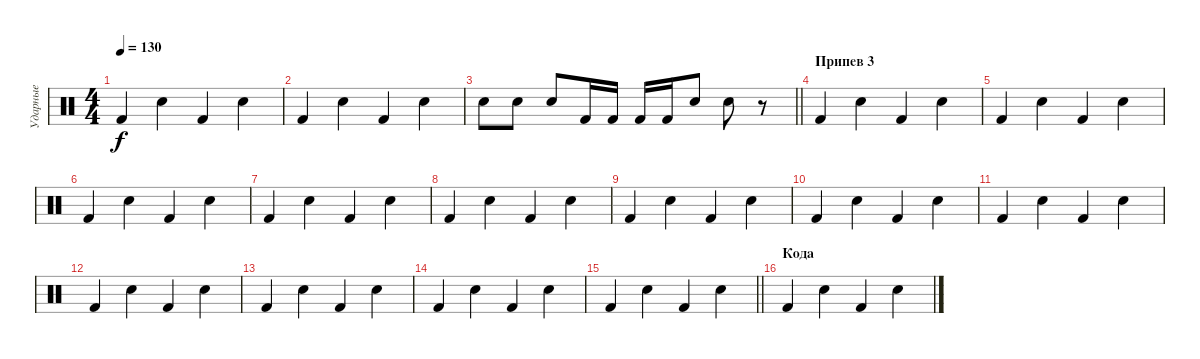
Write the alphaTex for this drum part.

\track ("Ударные" "Ударные") {instrument percussion}
\staff {score}
\articulation defaults
\ts (4 4)
\tempo 130
\clef neutral
\ks c "Kick (hit) 2".4{dy f} "Electric Snare (hit)".4 "Kick (hit) 2".4 "Electric Snare (hit)".4
|
"Kick (hit) 2".4 "Electric Snare (hit)".4 "Kick (hit) 2".4 "Electric Snare (hit)".4 |
\barLineRight lightlight "Electric Snare (hit)".8 "Electric Snare (hit)".8 "Electric Snare (hit)".8 "Kick (hit) 2".16 "Kick (hit) 2".16 "Kick (hit) 2".16 "Kick (hit) 2".16 "Electric Snare (hit)".8 "Electric Snare (hit)".8
r.8 |
\section ("" "Припев 3")
"Kick (hit) 2".4 "Electric Snare (hit)".4 "Kick (hit) 2".4 "Electric Snare (hit)".4 |
"Kick (hit) 2".4 "Electric Snare (hit)".4 "Kick (hit) 2".4 "Electric Snare (hit)".4 |
"Kick (hit) 2".4 "Electric Snare (hit)".4 "Kick (hit) 2".4 "Electric Snare (hit)".4 |
"Kick (hit) 2".4 "Electric Snare (hit)".4 "Kick (hit) 2".4 "Electric Snare (hit)".4 |
"Kick (hit) 2".4 "Electric Snare (hit)".4 "Kick (hit) 2".4 "Electric Snare (hit)".4 |
"Kick (hit) 2".4 "Electric Snare (hit)".4 "Kick (hit) 2".4 "Electric Snare (hit)".4 |
"Kick (hit) 2".4 "Electric Snare (hit)".4 "Kick (hit) 2".4 "Electric Snare (hit)".4 |
"Kick (hit) 2".4 "Electric Snare (hit)".4 "Kick (hit) 2".4 "Electric Snare (hit)".4 |
"Kick (hit) 2".4 "Electric Snare (hit)".4 "Kick (hit) 2".4 "Electric Snare (hit)".4 |
"Kick (hit) 2".4 "Electric Snare (hit)".4 "Kick (hit) 2".4 "Electric Snare (hit)".4 |
"Kick (hit) 2".4 "Electric Snare (hit)".4 "Kick (hit) 2".4 "Electric Snare (hit)".4 |
\barLineRight lightlight "Kick (hit) 2".4 "Electric Snare (hit)".4 "Kick (hit) 2".4 "Electric Snare (hit)".4
|
\section ("" "Кода")
"Kick (hit) 2".4 "Electric Snare (hit)".4 "Kick (hit) 2".4 "Electric Snare (hit)".4
